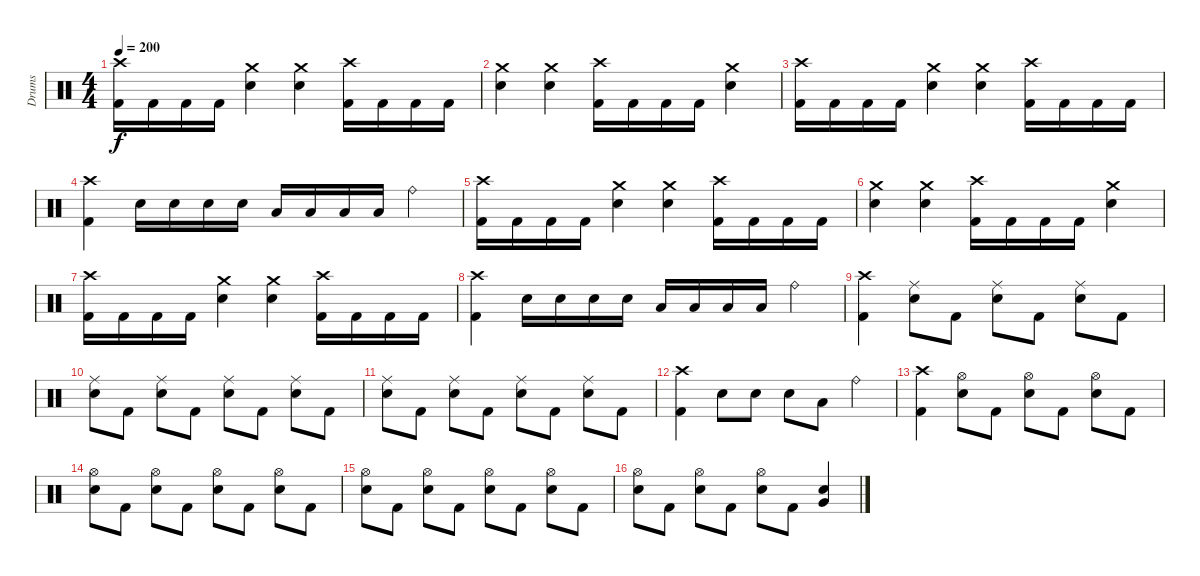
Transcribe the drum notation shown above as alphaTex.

\track ("Drums" "Drums") {instrument percussion}
\staff {score}
\articulation defaults
\ts (4 4)
\tempo 200
\clef neutral
\ks c
("Crash high (hit)" "Kick (hit) 2").16{dy f} "Kick (hit) 2".16 "Kick (hit) 2".16 "Kick (hit) 2".16 ("Crash medium (hit)" "Electric Snare (hit)").4 ("Crash medium (hit)" "Electric Snare (hit)").4 ("Crash high (hit)" "Kick (hit) 2").16 "Kick (hit) 2".16 "Kick (hit) 2".16 "Kick (hit) 2".16 |
("Crash medium (hit)" "Electric Snare (hit)").4 ("Crash medium (hit)" "Electric Snare (hit)").4 ("Crash high (hit)" "Kick (hit) 2").16 "Kick (hit) 2".16 "Kick (hit) 2".16 "Kick (hit) 2".16 ("Crash medium (hit)" "Electric Snare (hit)").4 |
("Crash high (hit)" "Kick (hit) 2").16 "Kick (hit) 2".16 "Kick (hit) 2".16 "Kick (hit) 2".16 ("Crash medium (hit)" "Electric Snare (hit)").4 ("Crash medium (hit)" "Electric Snare (hit)").4 ("Crash high (hit)" "Kick (hit) 2").16 "Kick (hit) 2".16 "Kick (hit) 2".16 "Kick (hit) 2".16 |
("Crash high (hit)" "Kick (hit) 2").4 "Electric Snare (hit)".16 "Electric Snare (hit)".16 "Electric Snare (hit)".16 "Electric Snare (hit)".16 "Low Tom (hit)".16 "Low Tom (hit)".16 "Low Tom (hit)".16 "Low Tom (hit)".16 "Ride (bell)".4 |
("Crash high (hit)" "Kick (hit) 2").16 "Kick (hit) 2".16 "Kick (hit) 2".16 "Kick (hit) 2".16 ("Crash medium (hit)" "Electric Snare (hit)").4 ("Crash medium (hit)" "Electric Snare (hit)").4 ("Crash high (hit)" "Kick (hit) 2").16 "Kick (hit) 2".16 "Kick (hit) 2".16 "Kick (hit) 2".16 |
("Crash medium (hit)" "Electric Snare (hit)").4 ("Crash medium (hit)" "Electric Snare (hit)").4 ("Crash high (hit)" "Kick (hit) 2").16 "Kick (hit) 2".16 "Kick (hit) 2".16 "Kick (hit) 2".16 ("Crash medium (hit)" "Electric Snare (hit)").4 |
("Crash high (hit)" "Kick (hit) 2").16 "Kick (hit) 2".16 "Kick (hit) 2".16 "Kick (hit) 2".16 ("Crash medium (hit)" "Electric Snare (hit)").4 ("Crash medium (hit)" "Electric Snare (hit)").4 ("Crash high (hit)" "Kick (hit) 2").16 "Kick (hit) 2".16 "Kick (hit) 2".16 "Kick (hit) 2".16 |
("Crash high (hit)" "Kick (hit) 2").4 "Electric Snare (hit)".16 "Electric Snare (hit)".16 "Electric Snare (hit)".16 "Electric Snare (hit)".16 "Low Tom (hit)".16 "Low Tom (hit)".16 "Low Tom (hit)".16 "Low Tom (hit)".16 "Ride (bell)".4 |
("Crash high (hit)" "Kick (hit) 2").4 ("Ride (middle)" "Electric Snare (hit)").8 "Kick (hit) 2".8 ("Ride (middle)" "Electric Snare (hit)").8 "Kick (hit) 2".8 ("Ride (middle)" "Electric Snare (hit)").8 "Kick (hit) 2".8 |
("Ride (middle)" "Electric Snare (hit)").8 "Kick (hit) 2".8 ("Ride (middle)" "Electric Snare (hit)").8 "Kick (hit) 2".8 ("Ride (middle)" "Electric Snare (hit)").8 "Kick (hit) 2".8 ("Ride (middle)" "Electric Snare (hit)").8 "Kick (hit) 2".8 |
("Ride (middle)" "Electric Snare (hit)").8 "Kick (hit) 2".8 ("Ride (middle)" "Electric Snare (hit)").8 "Kick (hit) 2".8 ("Ride (middle)" "Electric Snare (hit)").8 "Kick (hit) 2".8 ("Ride (middle)" "Electric Snare (hit)").8 "Kick (hit) 2".8 |
("Crash high (hit)" "Kick (hit) 2").4 "Electric Snare (hit)".8 "Electric Snare (hit)".8 "Electric Snare (hit)".8 "Low Tom (hit)".8 "Ride (bell)".4 |
("Crash high (hit)" "Kick (hit) 2").4 ("Hi-Hat (open)" "Electric Snare (hit)").8 "Kick (hit) 2".8 ("Hi-Hat (open)" "Electric Snare (hit)").8 "Kick (hit) 2".8 ("Hi-Hat (open)" "Electric Snare (hit)").8 "Kick (hit) 2".8 |
("Hi-Hat (open)" "Electric Snare (hit)").8 "Kick (hit) 2".8 ("Hi-Hat (open)" "Electric Snare (hit)").8 "Kick (hit) 2".8 ("Hi-Hat (open)" "Electric Snare (hit)").8 "Kick (hit) 2".8 ("Hi-Hat (open)" "Electric Snare (hit)").8 "Kick (hit) 2".8 |
("Hi-Hat (open)" "Electric Snare (hit)").8 "Kick (hit) 2".8 ("Hi-Hat (open)" "Electric Snare (hit)").8 "Kick (hit) 2".8 ("Hi-Hat (open)" "Electric Snare (hit)").8 "Kick (hit) 2".8 ("Hi-Hat (open)" "Electric Snare (hit)").8 "Kick (hit) 2".8 |
("Hi-Hat (open)" "Electric Snare (hit)").8 "Kick (hit) 2".8 ("Hi-Hat (open)" "Electric Snare (hit)").8 "Kick (hit) 2".8 ("Hi-Hat (open)" "Electric Snare (hit)").8 "Kick (hit) 2".8 ("Very Low Tom (hit)" "Electric Snare (hit)").4
